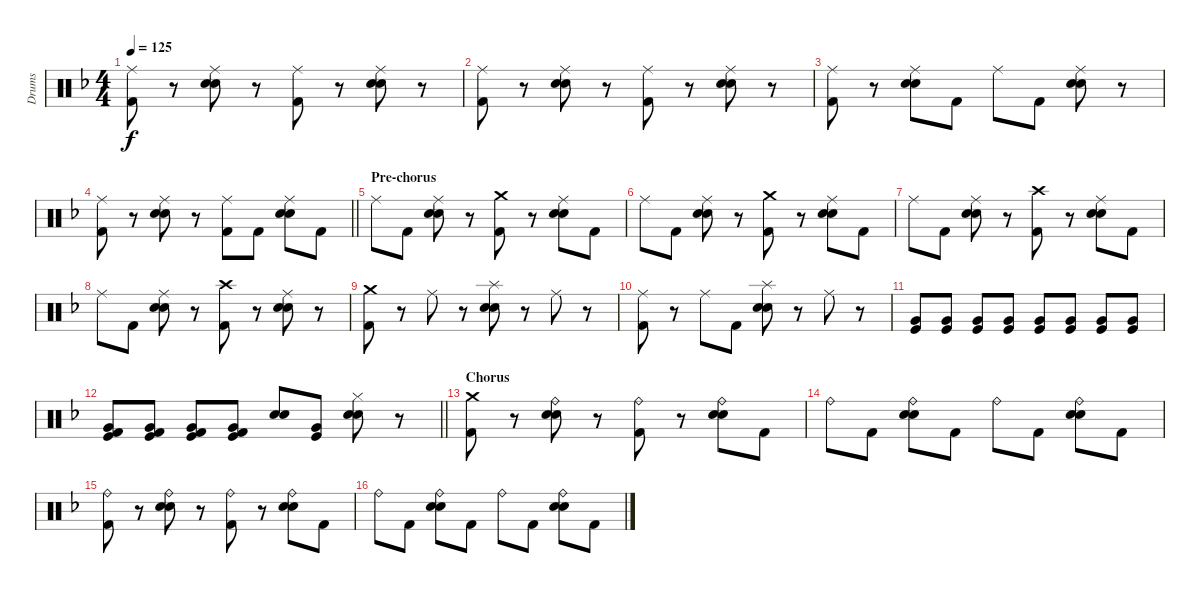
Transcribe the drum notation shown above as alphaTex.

\track ("Drums" "Drums") {instrument percussion}
\staff {score}
\articulation defaults
\ts (4 4)
\tempo 125
\clef neutral
\ks f
("Ride (middle)" "Kick (hit) 2").8{dy f} r.8 ("Ride (middle)" "Electric Snare (hit)" "Snare (hit) 2").8 r.8 ("Ride (middle)" "Kick (hit) 2").8 r.8 ("Ride (middle)" "Electric Snare (hit)" "Snare (hit) 2").8 r.8 |
("Ride (middle)" "Kick (hit) 2").8 r.8 ("Ride (middle)" "Electric Snare (hit)" "Snare (hit) 2").8 r.8 ("Ride (middle)" "Kick (hit) 2").8 r.8 ("Ride (middle)" "Electric Snare (hit)" "Snare (hit) 2").8 r.8 |
("Ride (middle)" "Kick (hit) 2").8 r.8 ("Ride (middle)" "Electric Snare (hit)" "Snare (hit) 2").8 "Kick (hit) 2".8 "Ride (middle)".8 "Kick (hit) 2".8 ("Ride (middle)" "Electric Snare (hit)" "Snare (hit) 2").8 r.8 |
\barLineRight lightlight
("Ride (middle)" "Kick (hit) 2").8 r.8 ("Ride (middle)" "Electric Snare (hit)" "Snare (hit) 2").8 r.8 ("Ride (middle)" "Kick (hit) 2").8 "Kick (hit) 2".8 ("Ride (middle)" "Electric Snare (hit)" "Snare (hit) 2").8 "Kick (hit) 2".8 |
\section ("" "Pre-chorus")
"Ride (middle)".8 "Kick (hit) 2".8 ("Ride (middle)" "Electric Snare (hit)" "Snare (hit) 2").8 r.8 ("Crash medium (hit)" "Kick (hit) 2").8 r.8 ("Ride (middle)" "Electric Snare (hit)" "Snare (hit) 2").8 "Kick (hit) 2".8 |
"Ride (middle)".8 "Kick (hit) 2".8 ("Ride (middle)" "Electric Snare (hit)" "Snare (hit) 2").8 r.8 ("Crash medium (hit)" "Kick (hit) 2").8 r.8 ("Ride (middle)" "Electric Snare (hit)" "Snare (hit) 2").8 "Kick (hit) 2".8 |
"Ride (middle)".8 "Kick (hit) 2".8 ("Ride (middle)" "Electric Snare (hit)" "Snare (hit) 2").8 r.8 ("Crash high (hit)" "Kick (hit) 2").8 r.8 ("Ride (middle)" "Electric Snare (hit)" "Snare (hit) 2").8 "Kick (hit) 2".8 |
"Ride (middle)".8 "Kick (hit) 2".8 ("Ride (middle)" "Electric Snare (hit)" "Snare (hit) 2").8 r.8 ("Crash high (hit)" "Kick (hit) 2").8 r.8 ("Ride (middle)" "Electric Snare (hit)" "Snare (hit) 2").8 r.8 |
("Crash medium (hit)" "Kick (hit) 2").8 r.8 "Ride (middle)".8 r.8 ("Splash (hit)" "Electric Snare (hit)" "Snare (hit) 2").8 r.8 "Ride (middle)".8 r.8 |
("Ride (middle)" "Kick (hit) 2").8 r.8 "Ride (middle)".8 "Kick (hit) 2".8 ("Splash (hit)" "Snare (hit) 2" "Snare (hit) 2").8 r.8 "Ride (middle)".8 r.8 |
("Very Low Tom (hit)" "Kick (hit)").8 ("Very Low Tom (hit)" "Kick (hit)").8 ("Very Low Tom (hit)" "Kick (hit)").8 ("Very Low Tom (hit)" "Kick (hit)").8 ("Very Low Tom (hit)" "Kick (hit)").8 ("Very Low Tom (hit)" "Kick (hit)").8 ("Very Low Tom (hit)" "Kick (hit)").8 ("Very Low Tom (hit)" "Kick (hit)").8 |
\barLineRight lightlight
("Very Low Tom (hit)" "Kick (hit)" "Kick (hit) 2").8 ("Very Low Tom (hit)" "Kick (hit)" "Kick (hit) 2").8 ("Very Low Tom (hit)" "Kick (hit)" "Kick (hit) 2").8 ("Very Low Tom (hit)" "Kick (hit)" "Kick (hit) 2").8 ("Electric Snare (hit)" "Snare (hit) 2").8 ("Very Low Tom (hit)" "Kick (hit)").8 ("Hi-Hat (closed)" "Electric Snare (hit)" "Snare (hit) 2").8 r.8 |
\section ("" "Chorus")
("Crash medium (hit)" "Kick (hit) 2").8 r.8 ("Ride (bell)" "Electric Snare (hit)" "Snare (hit) 2").8 r.8 ("Ride (bell)" "Kick (hit) 2").8 r.8 ("Ride (bell)" "Electric Snare (hit)" "Snare (hit) 2").8 "Kick (hit) 2".8 |
"Ride (bell)".8 "Kick (hit) 2".8 ("Ride (bell)" "Electric Snare (hit)" "Snare (hit) 2").8 "Kick (hit) 2".8 "Ride (bell)".8 "Kick (hit) 2".8 ("Ride (bell)" "Electric Snare (hit)" "Snare (hit) 2").8 "Kick (hit) 2".8 |
("Ride (bell)" "Kick (hit) 2").8 r.8 ("Ride (bell)" "Electric Snare (hit)" "Snare (hit) 2").8 r.8 ("Ride (bell)" "Kick (hit) 2").8 r.8 ("Ride (bell)" "Electric Snare (hit)" "Snare (hit) 2").8 "Kick (hit) 2".8 |
"Ride (bell)".8 "Kick (hit) 2".8 ("Ride (bell)" "Electric Snare (hit)" "Snare (hit) 2").8 "Kick (hit) 2".8 "Ride (bell)".8 "Kick (hit) 2".8 ("Ride (bell)" "Electric Snare (hit)" "Snare (hit) 2").8 "Kick (hit) 2".8
